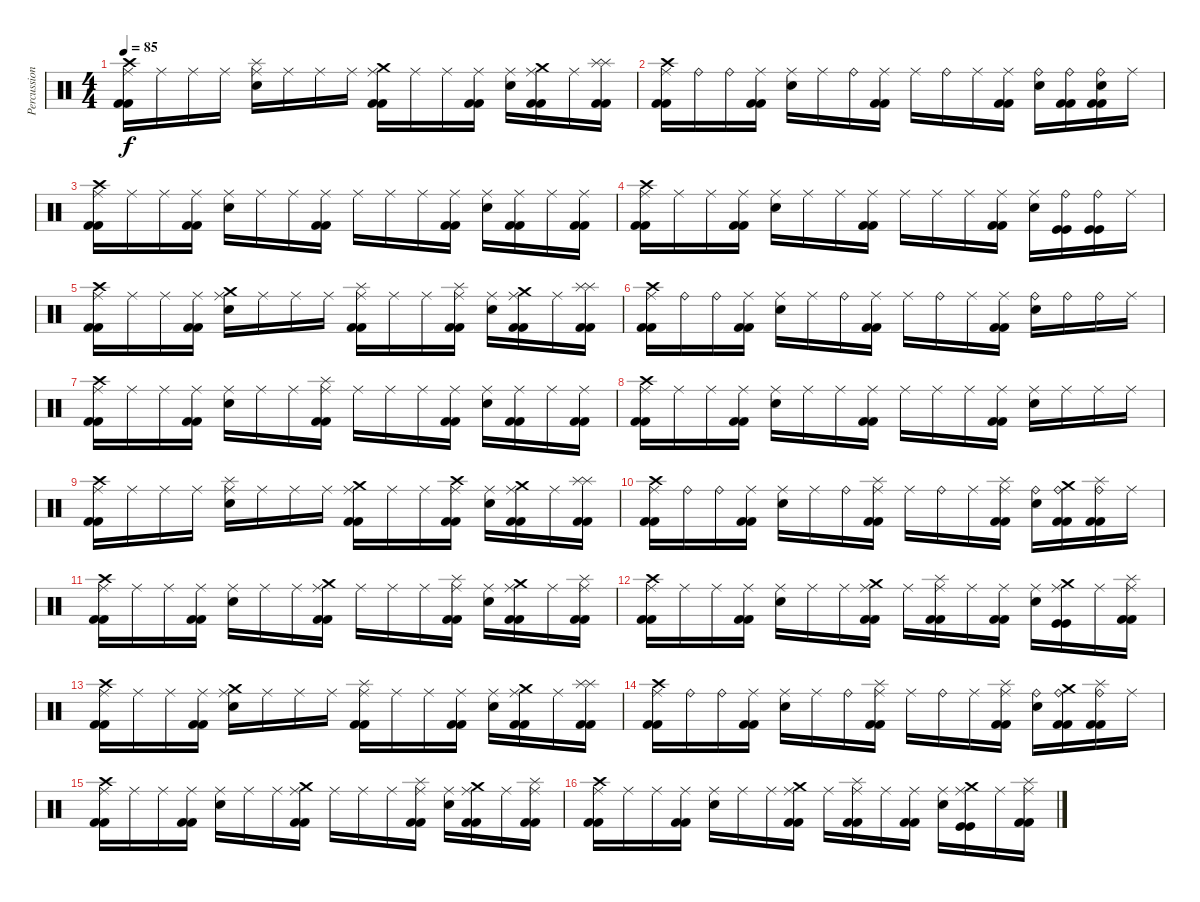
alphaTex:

\track ("Percussion" "Percussion") {instrument percussion}
\staff {score}
\articulation defaults
\ts (4 4)
\tempo 85
\clef neutral
\ks c
("Ride (middle)" "Crash high (hit)" "Kick (hit) 2" "Kick (hit) 2").16{dy f} "Ride (middle)".16 "Ride (middle)".16 "Ride (middle)".16 ("Ride (middle)" "Splash (hit)" "Electric Snare (hit)").16 "Ride (middle)".16 "Ride (middle)".16 "Ride (middle)".16 ("Ride (middle)" "Crash medium (hit)" "Kick (hit) 2" "Kick (hit) 2").16 "Ride (middle)".16 "Ride (middle)".16 ("Ride (middle)" "Kick (hit) 2" "Kick (hit) 2").16 ("Ride (middle)" "Electric Snare (hit)").16 ("Ride (middle)" "Crash medium (hit)" "Kick (hit) 2" "Kick (hit) 2").16 "Ride (middle)".16 ("Splash (hit)" "Splash (hit)" "Kick (hit) 2" "Kick (hit) 2").16 |
("Ride (middle)" "Crash high (hit)" "Kick (hit) 2" "Kick (hit) 2").16 "Ride (bell)".16 "Ride (bell)".16 ("Ride (middle)" "Kick (hit) 2" "Kick (hit) 2").16 ("Ride (middle)" "Electric Snare (hit)").16 "Ride (middle)".16 "Ride (bell)".16 ("Ride (middle)" "Kick (hit) 2" "Kick (hit) 2").16 "Ride (middle)".16 "Ride (bell)".16 "Ride (middle)".16 ("Ride (middle)" "Kick (hit) 2" "Kick (hit) 2").16 ("Ride (bell)" "Electric Snare (hit)").16 ("Ride (bell)" "Kick (hit) 2" "Kick (hit) 2").16 ("Ride (bell)" "Snare (hit)" "Kick (hit) 2" "Kick (hit) 2").16 "Ride (middle)".16 |
("Ride (middle)" "Crash high (hit)" "Kick (hit) 2" "Kick (hit) 2").16 "Ride (middle)".16 "Ride (middle)".16 ("Ride (middle)" "Kick (hit) 2" "Kick (hit) 2").16 ("Ride (middle)" "Electric Snare (hit)").16 "Ride (middle)".16 "Ride (middle)".16 ("Ride (middle)" "Kick (hit) 2" "Kick (hit) 2").16 "Ride (middle)".16 "Ride (middle)".16 "Ride (middle)".16 ("Ride (middle)" "Kick (hit) 2" "Kick (hit) 2").16 ("Ride (middle)" "Electric Snare (hit)").16 ("Ride (middle)" "Kick (hit) 2" "Kick (hit) 2").16 "Ride (middle)".16 ("Ride (middle)" "Kick (hit) 2" "Kick (hit) 2").16 |
("Ride (middle)" "Crash high (hit)" "Kick (hit) 2" "Kick (hit) 2").16 "Ride (middle)".16 "Ride (middle)".16 ("Ride (middle)" "Kick (hit) 2" "Kick (hit) 2").16 ("Ride (middle)" "Electric Snare (hit)").16 "Ride (middle)".16 "Ride (middle)".16 ("Ride (middle)" "Kick (hit) 2" "Kick (hit) 2").16 "Ride (middle)".16 "Ride (middle)".16 "Ride (middle)".16 ("Ride (middle)" "Kick (hit) 2" "Kick (hit) 2").16 ("Ride (middle)" "Electric Snare (hit)").16 ("Ride (bell)" "Kick (hit)" "Kick (hit)").16 ("Ride (bell)" "Kick (hit)" "Kick (hit)").16 "Ride (middle)".16 |
("Ride (middle)" "Crash high (hit)" "Kick (hit) 2" "Kick (hit) 2").16 "Ride (middle)".16 "Ride (middle)".16 ("Ride (middle)" "Kick (hit) 2" "Kick (hit) 2").16 ("Ride (middle)" "Crash medium (hit)" "Electric Snare (hit)").16 "Ride (middle)".16 "Ride (middle)".16 "Ride (middle)".16 ("Ride (middle)" "Splash (hit)" "Kick (hit) 2" "Kick (hit) 2").16 "Ride (middle)".16 "Ride (middle)".16 ("Ride (middle)" "Splash (hit)" "Kick (hit) 2" "Kick (hit) 2").16 ("Ride (middle)" "Electric Snare (hit)").16 ("Ride (middle)" "Crash medium (hit)" "Kick (hit) 2" "Kick (hit) 2").16 "Ride (middle)".16 ("Splash (hit)" "Splash (hit)" "Kick (hit) 2" "Kick (hit) 2").16 |
("Ride (middle)" "Crash high (hit)" "Kick (hit) 2" "Kick (hit) 2").16 "Ride (bell)".16 "Ride (bell)".16 ("Ride (middle)" "Kick (hit) 2" "Kick (hit) 2").16 ("Ride (middle)" "Electric Snare (hit)").16 "Ride (middle)".16 "Ride (bell)".16 ("Ride (middle)" "Kick (hit) 2" "Kick (hit) 2").16 "Ride (middle)".16 "Ride (bell)".16 "Ride (middle)".16 ("Ride (middle)" "Kick (hit) 2" "Kick (hit) 2").16 ("Ride (bell)" "Electric Snare (hit)").16 "Ride (bell)".16 "Ride (bell)".16 "Ride (middle)".16 |
("Ride (middle)" "Crash high (hit)" "Kick (hit) 2" "Kick (hit) 2").16 "Ride (middle)".16 "Ride (middle)".16 ("Ride (middle)" "Kick (hit) 2" "Kick (hit) 2").16 ("Ride (middle)" "Electric Snare (hit)").16 "Ride (middle)".16 "Ride (middle)".16 ("Ride (middle)" "Splash (hit)" "Kick (hit) 2" "Kick (hit) 2").16 "Ride (middle)".16 "Ride (middle)".16 "Ride (middle)".16 ("Ride (middle)" "Kick (hit) 2" "Kick (hit) 2").16 ("Ride (middle)" "Electric Snare (hit)").16 ("Ride (middle)" "Kick (hit) 2" "Kick (hit) 2").16 "Ride (middle)".16 ("Ride (middle)" "Kick (hit) 2" "Kick (hit) 2").16 |
("Ride (middle)" "Crash high (hit)" "Kick (hit) 2" "Kick (hit) 2").16 "Ride (middle)".16 "Ride (middle)".16 ("Ride (middle)" "Kick (hit) 2" "Kick (hit) 2").16 ("Ride (middle)" "Electric Snare (hit)").16 "Ride (middle)".16 "Ride (middle)".16 ("Ride (middle)" "Kick (hit) 2" "Kick (hit) 2").16 "Ride (middle)".16 "Ride (middle)".16 "Ride (middle)".16 ("Ride (middle)" "Kick (hit) 2" "Kick (hit) 2").16 ("Ride (middle)" "Electric Snare (hit)").16 "Ride (middle)".16 "Ride (middle)".16 "Ride (middle)".16 |
("Ride (middle)" "Crash high (hit)" "Kick (hit) 2" "Kick (hit) 2").16 "Ride (middle)".16 "Ride (middle)".16 "Ride (middle)".16 ("Ride (middle)" "Splash (hit)" "Electric Snare (hit)").16 "Ride (middle)".16 "Ride (middle)".16 "Ride (middle)".16 ("Ride (middle)" "Crash medium (hit)" "Kick (hit) 2" "Kick (hit) 2").16 "Ride (middle)".16 "Ride (middle)".16 ("Ride (middle)" "Crash high (hit)" "Kick (hit) 2" "Kick (hit) 2").16 ("Ride (middle)" "Electric Snare (hit)").16 ("Ride (middle)" "Crash medium (hit)" "Kick (hit) 2" "Kick (hit) 2").16 "Ride (middle)".16 ("Splash (hit)" "Splash (hit)" "Kick (hit) 2" "Kick (hit) 2").16 |
("Ride (middle)" "Crash high (hit)" "Kick (hit) 2" "Kick (hit) 2").16 "Ride (bell)".16 "Ride (bell)".16 ("Ride (middle)" "Kick (hit) 2" "Kick (hit) 2").16 ("Ride (middle)" "Electric Snare (hit)").16 "Ride (middle)".16 "Ride (bell)".16 ("Ride (middle)" "Splash (hit)" "Kick (hit) 2" "Kick (hit) 2").16 "Ride (middle)".16 "Ride (bell)".16 "Ride (middle)".16 ("Ride (middle)" "Splash (hit)" "Kick (hit) 2" "Kick (hit) 2").16 ("Ride (bell)" "Electric Snare (hit)").16 ("Ride (bell)" "Crash medium (hit)" "Kick (hit) 2" "Kick (hit) 2").16 ("Ride (bell)" "Splash (hit)" "Kick (hit) 2" "Kick (hit) 2").16 "Ride (middle)".16 |
("Ride (middle)" "Crash high (hit)" "Kick (hit) 2" "Kick (hit) 2").16 "Ride (middle)".16 "Ride (middle)".16 ("Ride (middle)" "Kick (hit) 2" "Kick (hit) 2").16 ("Ride (middle)" "Electric Snare (hit)").16 "Ride (middle)".16 "Ride (middle)".16 ("Ride (middle)" "Crash medium (hit)" "Kick (hit) 2" "Kick (hit) 2").16 "Ride (middle)".16 "Ride (middle)".16 "Ride (middle)".16 ("Ride (middle)" "Splash (hit)" "Kick (hit) 2" "Kick (hit) 2").16 ("Ride (middle)" "Electric Snare (hit)").16 ("Ride (middle)" "Crash medium (hit)" "Kick (hit) 2" "Kick (hit) 2").16 "Ride (middle)".16 ("Ride (middle)" "Splash (hit)" "Kick (hit) 2" "Kick (hit) 2").16 |
("Ride (middle)" "Crash high (hit)" "Kick (hit) 2" "Kick (hit) 2").16 "Ride (middle)".16 "Ride (middle)".16 ("Ride (middle)" "Kick (hit) 2" "Kick (hit) 2").16 ("Ride (middle)" "Electric Snare (hit)").16 "Ride (middle)".16 "Ride (middle)".16 ("Ride (middle)" "Crash medium (hit)" "Kick (hit) 2" "Kick (hit) 2").16 "Ride (middle)".16 ("Ride (middle)" "Splash (hit)" "Kick (hit) 2" "Kick (hit) 2").16 "Ride (middle)".16 ("Ride (middle)" "Kick (hit) 2" "Kick (hit) 2").16 ("Ride (middle)" "Electric Snare (hit)").16 ("Ride (middle)" "Crash medium (hit)" "Kick (hit)" "Kick (hit)").16 "Ride (middle)".16 ("Ride (middle)" "Splash (hit)" "Kick (hit) 2" "Kick (hit) 2").16 |
("Ride (middle)" "Crash high (hit)" "Kick (hit) 2" "Kick (hit) 2").16 "Ride (middle)".16 "Ride (middle)".16 ("Ride (middle)" "Kick (hit) 2" "Kick (hit) 2").16 ("Ride (middle)" "Crash medium (hit)" "Electric Snare (hit)").16 "Ride (middle)".16 "Ride (middle)".16 "Ride (middle)".16 ("Ride (middle)" "Splash (hit)" "Kick (hit) 2" "Kick (hit) 2").16 "Ride (middle)".16 "Ride (middle)".16 ("Ride (middle)" "Kick (hit) 2" "Kick (hit) 2").16 ("Ride (middle)" "Electric Snare (hit)").16 ("Ride (middle)" "Crash medium (hit)" "Kick (hit) 2" "Kick (hit) 2").16 "Ride (middle)".16 ("Splash (hit)" "Splash (hit)" "Kick (hit) 2" "Kick (hit) 2").16 |
("Ride (middle)" "Crash high (hit)" "Kick (hit) 2" "Kick (hit) 2").16 "Ride (bell)".16 "Ride (bell)".16 ("Ride (middle)" "Kick (hit) 2" "Kick (hit) 2").16 ("Ride (middle)" "Electric Snare (hit)").16 "Ride (middle)".16 "Ride (bell)".16 ("Ride (middle)" "Splash (hit)" "Kick (hit) 2" "Kick (hit) 2").16 "Ride (middle)".16 "Ride (bell)".16 "Ride (middle)".16 ("Ride (middle)" "Splash (hit)" "Kick (hit) 2" "Kick (hit) 2").16 ("Ride (bell)" "Electric Snare (hit)").16 ("Ride (bell)" "Crash medium (hit)" "Kick (hit) 2" "Kick (hit) 2").16 ("Ride (bell)" "Splash (hit)" "Kick (hit) 2" "Kick (hit) 2").16 "Ride (middle)".16 |
("Ride (middle)" "Crash high (hit)" "Kick (hit) 2" "Kick (hit) 2").16 "Ride (middle)".16 "Ride (middle)".16 ("Ride (middle)" "Kick (hit) 2" "Kick (hit) 2").16 ("Ride (middle)" "Electric Snare (hit)").16 "Ride (middle)".16 "Ride (middle)".16 ("Ride (middle)" "Crash medium (hit)" "Kick (hit) 2" "Kick (hit) 2").16 "Ride (middle)".16 "Ride (middle)".16 "Ride (middle)".16 ("Ride (middle)" "Splash (hit)" "Kick (hit) 2" "Kick (hit) 2").16 ("Ride (middle)" "Electric Snare (hit)").16 ("Ride (middle)" "Crash medium (hit)" "Kick (hit) 2" "Kick (hit) 2").16 "Ride (middle)".16 ("Ride (middle)" "Splash (hit)" "Kick (hit) 2" "Kick (hit) 2").16 |
("Ride (middle)" "Crash high (hit)" "Kick (hit) 2" "Kick (hit) 2").16 "Ride (middle)".16 "Ride (middle)".16 ("Ride (middle)" "Kick (hit) 2" "Kick (hit) 2").16 ("Ride (middle)" "Electric Snare (hit)").16 "Ride (middle)".16 "Ride (middle)".16 ("Ride (middle)" "Crash medium (hit)" "Kick (hit) 2" "Kick (hit) 2").16 "Ride (middle)".16 ("Ride (middle)" "Splash (hit)" "Kick (hit) 2" "Kick (hit) 2").16 "Ride (middle)".16 ("Ride (middle)" "Kick (hit) 2" "Kick (hit) 2").16 ("Ride (middle)" "Electric Snare (hit)").16 ("Ride (middle)" "Crash medium (hit)" "Kick (hit)" "Kick (hit)").16 "Ride (middle)".16 ("Ride (middle)" "Splash (hit)" "Kick (hit) 2" "Kick (hit) 2").16
